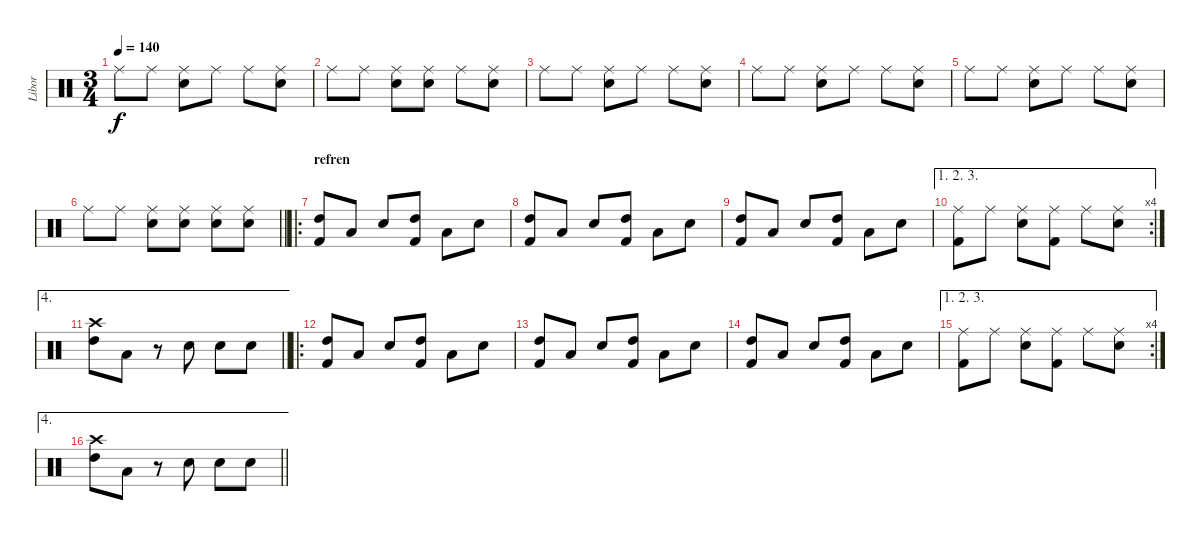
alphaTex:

\track ("Libor" "Libor") {instrument percussion}
\staff {score}
\articulation defaults
\ts (3 4)
\tempo 140
\clef neutral
\ks c "Ride (middle)".8{dy f} "Ride (middle)".8
("Ride (middle)" "Snare (hit) 2").8 "Ride (middle)".8 "Ride (middle)".8 ("Ride (middle)" "Snare (hit) 2").8 |
"Ride (middle)".8 "Ride (middle)".8 ("Ride (middle)" "Snare (hit) 2").8 ("Ride (middle)" "Snare (hit) 2").8 "Ride (middle)".8 ("Ride (middle)" "Snare (hit) 2").8 |
"Ride (middle)".8 "Ride (middle)".8 ("Ride (middle)" "Snare (hit) 2").8 "Ride (middle)".8 "Ride (middle)".8 ("Ride (middle)" "Snare (hit) 2").8 |
"Ride (middle)".8 "Ride (middle)".8 ("Ride (middle)" "Snare (hit) 2").8 "Ride (middle)".8 "Ride (middle)".8 ("Ride (middle)" "Snare (hit) 2").8 |
"Ride (middle)".8 "Ride (middle)".8 ("Ride (middle)" "Snare (hit) 2").8 "Ride (middle)".8 "Ride (middle)".8 ("Ride (middle)" "Snare (hit) 2").8 |
\barLineRight lightlight "Ride (middle)".8 "Ride (middle)".8
("Ride (middle)" "Snare (hit) 2").8 ("Ride (middle)" "Snare (hit) 2").8 ("Ride (middle)" "Snare (hit) 2").8 ("Ride (middle)" "Snare (hit) 2").8 |
\ro
\section ("" "refren")
("High Tom (hit)" "Kick (hit) 2").8 "Low Tom (hit)".8 "Snare (hit) 2".8 ("High Tom (hit)" "Kick (hit) 2").8 "Low Tom (hit)".8 "Snare (hit) 2".8 |
("High Tom (hit)" "Kick (hit) 2").8 "Low Tom (hit)".8 "Snare (hit) 2".8 ("High Tom (hit)" "Kick (hit) 2").8 "Low Tom (hit)".8 "Snare (hit) 2".8 |
("High Tom (hit)" "Kick (hit) 2").8 "Low Tom (hit)".8 "Snare (hit) 2".8 ("High Tom (hit)" "Kick (hit) 2").8 "Low Tom (hit)".8 "Snare (hit) 2".8 |
\ae (1 2 3)
\rc 4
("Kick (hit) 2" "Ride (middle)").8 "Ride (middle)".8 ("Snare (hit) 2" "Ride (middle)").8 ("Kick (hit) 2" "Ride (middle)").8 "Ride (middle)".8 ("Snare (hit) 2" "Ride (middle)").8 |
\ae 4
\barLineRight lightlight
("Crash high (hit)" "High Tom (hit)").8 "Low Tom (hit)".8 r.8 "Snare (hit) 2".8 "Snare (hit) 2".8 "Snare (hit) 2".8 |
\ro
("High Tom (hit)" "Kick (hit) 2").8 "Low Tom (hit)".8 "Snare (hit) 2".8 ("High Tom (hit)" "Kick (hit) 2").8 "Low Tom (hit)".8 "Snare (hit) 2".8 |
("High Tom (hit)" "Kick (hit) 2").8 "Low Tom (hit)".8 "Snare (hit) 2".8 ("High Tom (hit)" "Kick (hit) 2").8 "Low Tom (hit)".8 "Snare (hit) 2".8 |
("High Tom (hit)" "Kick (hit) 2").8 "Low Tom (hit)".8 "Snare (hit) 2".8 ("High Tom (hit)" "Kick (hit) 2").8 "Low Tom (hit)".8 "Snare (hit) 2".8 |
\ae (1 2 3)
\rc 4
("Kick (hit) 2" "Ride (middle)").8 "Ride (middle)".8 ("Snare (hit) 2" "Ride (middle)").8 ("Kick (hit) 2" "Ride (middle)").8 "Ride (middle)".8 ("Snare (hit) 2" "Ride (middle)").8 |
\ae 4
\barLineRight lightlight
("Crash high (hit)" "High Tom (hit)").8 "Low Tom (hit)".8 r.8 "Snare (hit) 2".8 "Snare (hit) 2".8 "Snare (hit) 2".8
